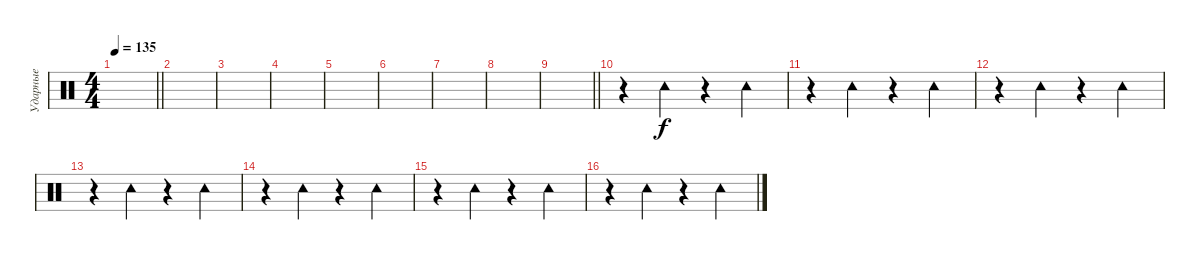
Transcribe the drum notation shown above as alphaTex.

\track ("Ударные" "Ударные") {instrument percussion}
\staff {score}
\articulation defaults
\ts (4 4)
\tempo 135
\clef neutral
\barLineRight lightlight
\ks c
|
\section ("" " ")
|
|
|
|
|
|
|
\barLineRight lightlight
|
\section ("" " ")
r.4 "Tambourine (hit)".4 r.4 "Tambourine (hit)".4 |
r.4 "Tambourine (hit)".4 r.4 "Tambourine (hit)".4 |
r.4 "Tambourine (hit)".4 r.4 "Tambourine (hit)".4 |
r.4 "Tambourine (hit)".4 r.4 "Tambourine (hit)".4 |
r.4 "Tambourine (hit)".4 r.4 "Tambourine (hit)".4 |
r.4 "Tambourine (hit)".4 r.4 "Tambourine (hit)".4 |
r.4 "Tambourine (hit)".4 r.4 "Tambourine (hit)".4
